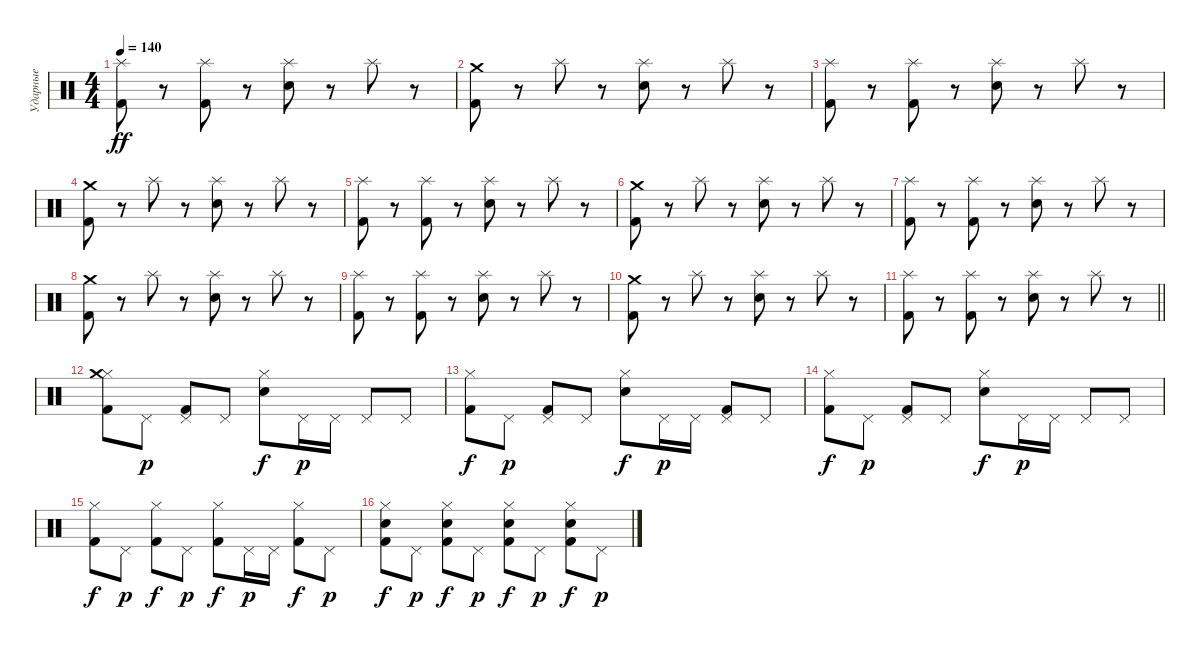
\track ("Ударные" "Ударные") {instrument percussion}
\staff {score}
\articulation defaults
\ts (4 4)
\tempo 140
\clef neutral
\ks c
("Kick (hit) 2" "Splash (hit)").8{dy ff} r.8 ("Kick (hit) 2" "Splash (hit)").8 r.8 ("Snare (hit) 2" "Splash (hit)").8 r.8 "Splash (hit)".8 r.8 |
("Kick (hit) 2" "Crash medium (hit)").8 r.8 "Splash (hit)".8 r.8 ("Snare (hit) 2" "Splash (hit)").8 r.8 "Splash (hit)".8 r.8 |
("Kick (hit) 2" "Splash (hit)").8 r.8 ("Kick (hit) 2" "Splash (hit)").8 r.8 ("Snare (hit) 2" "Splash (hit)").8 r.8 "Splash (hit)".8 r.8 |
("Kick (hit) 2" "Crash medium (hit)").8 r.8 "Splash (hit)".8 r.8 ("Snare (hit) 2" "Splash (hit)").8 r.8 "Splash (hit)".8 r.8 |
("Kick (hit) 2" "Splash (hit)").8 r.8 ("Kick (hit) 2" "Splash (hit)").8 r.8 ("Snare (hit) 2" "Splash (hit)").8 r.8 "Splash (hit)".8 r.8 |
("Kick (hit) 2" "Crash medium (hit)").8 r.8 "Splash (hit)".8 r.8 ("Snare (hit) 2" "Splash (hit)").8 r.8 "Splash (hit)".8 r.8 |
("Kick (hit) 2" "Splash (hit)").8 r.8 ("Kick (hit) 2" "Splash (hit)").8 r.8 ("Snare (hit) 2" "Splash (hit)").8 r.8 "Splash (hit)".8 r.8 |
("Kick (hit) 2" "Crash medium (hit)").8 r.8 "Splash (hit)".8 r.8 ("Snare (hit) 2" "Splash (hit)").8 r.8 "Splash (hit)".8 r.8 |
("Kick (hit) 2" "Splash (hit)").8 r.8 ("Kick (hit) 2" "Splash (hit)").8 r.8 ("Snare (hit) 2" "Splash (hit)").8 r.8 "Splash (hit)".8 r.8 |
("Kick (hit) 2" "Crash medium (hit)").8 r.8 "Splash (hit)".8 r.8 ("Snare (hit) 2" "Splash (hit)").8 r.8 "Splash (hit)".8 r.8 |
\barLineRight lightlight
("Kick (hit) 2" "Splash (hit)").8 r.8 ("Kick (hit) 2" "Splash (hit)").8 r.8 ("Snare (hit) 2" "Splash (hit)").8 r.8 "Splash (hit)".8 r.8 |
\section ("" "")
("Hi-Hat (closed)" "Kick (hit) 2" "Crash medium (hit)").8 "Pedal Hi-Hat (hit)".8{dy p} ("Pedal Hi-Hat (hit)" "Kick (hit) 2").8 "Pedal Hi-Hat (hit)".8 ("Snare (hit) 2" "Hi-Hat (closed)").8{dy f} "Pedal Hi-Hat (hit)".16{dy p} "Pedal Hi-Hat (hit)".16 "Pedal Hi-Hat (hit)".8 "Pedal Hi-Hat (hit)".8 |
("Kick (hit) 2" "Hi-Hat (closed)").8{dy f} "Pedal Hi-Hat (hit)".8{dy p} ("Pedal Hi-Hat (hit)" "Kick (hit) 2").8 "Pedal Hi-Hat (hit)".8 ("Snare (hit) 2" "Hi-Hat (closed)").8{dy f} "Pedal Hi-Hat (hit)".16{dy p} "Pedal Hi-Hat (hit)".16 ("Pedal Hi-Hat (hit)" "Kick (hit) 2").8 "Pedal Hi-Hat (hit)".8 |
("Hi-Hat (closed)" "Kick (hit) 2").8{dy f} "Pedal Hi-Hat (hit)".8{dy p} ("Pedal Hi-Hat (hit)" "Kick (hit) 2").8 "Pedal Hi-Hat (hit)".8 ("Snare (hit) 2" "Hi-Hat (closed)").8{dy f} "Pedal Hi-Hat (hit)".16{dy p} "Pedal Hi-Hat (hit)".16 "Pedal Hi-Hat (hit)".8 "Pedal Hi-Hat (hit)".8 |
("Hi-Hat (closed)" "Kick (hit) 2").8{dy f} "Pedal Hi-Hat (hit)".8{dy p} ("Hi-Hat (closed)" "Kick (hit) 2").8{dy f} "Pedal Hi-Hat (hit)".8{dy p} ("Hi-Hat (closed)" "Kick (hit) 2").8{dy f} "Pedal Hi-Hat (hit)".16{dy p} "Pedal Hi-Hat (hit)".16 ("Hi-Hat (closed)" "Kick (hit) 2").8{dy f} "Pedal Hi-Hat (hit)".8{dy p} |
("Snare (hit) 2" "Hi-Hat (closed)" "Kick (hit) 2").8{dy f} "Pedal Hi-Hat (hit)".8{dy p} ("Snare (hit) 2" "Hi-Hat (closed)" "Kick (hit) 2").8{dy f} "Pedal Hi-Hat (hit)".8{dy p} ("Snare (hit) 2" "Hi-Hat (closed)" "Kick (hit) 2").8{dy f} "Pedal Hi-Hat (hit)".8{dy p} ("Snare (hit) 2" "Hi-Hat (closed)" "Kick (hit) 2").8{dy f} "Pedal Hi-Hat (hit)".8{dy p}
